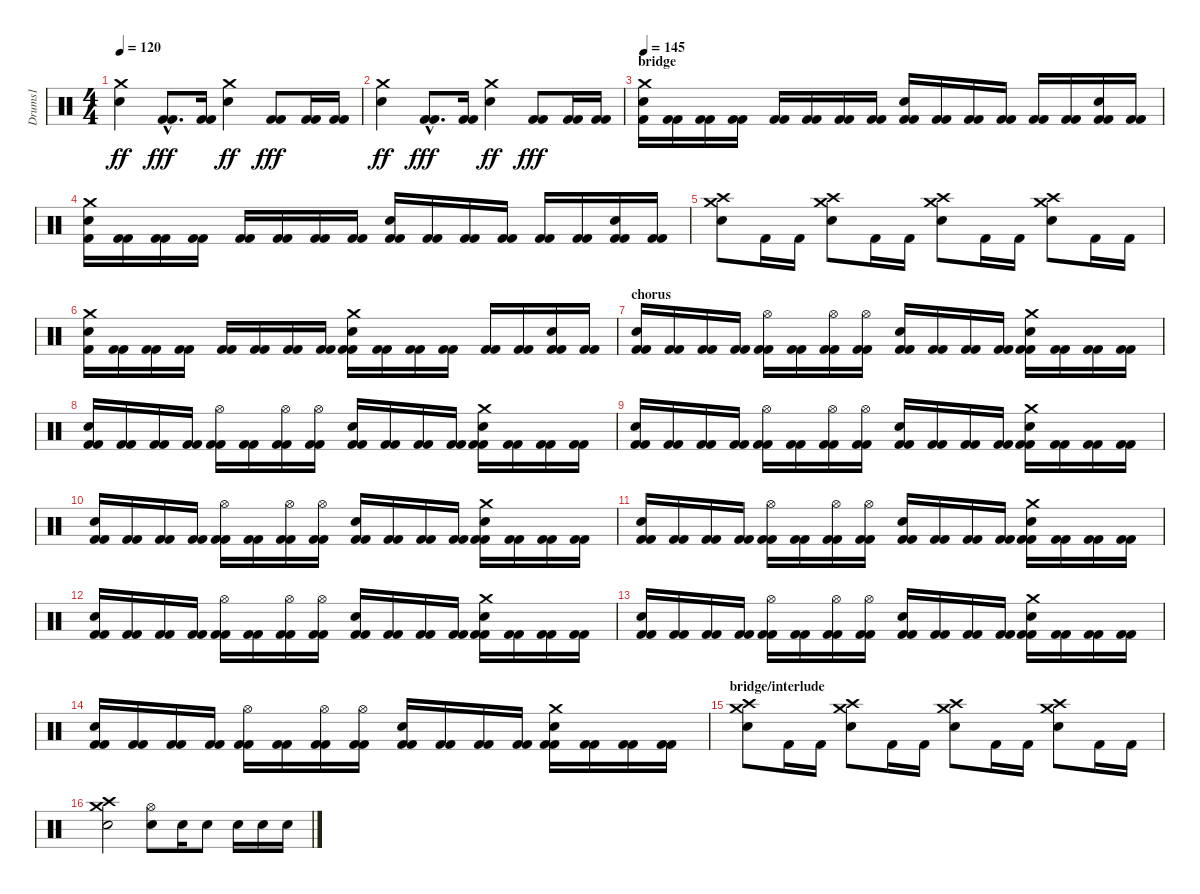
\track ("Drums1" "Drums1") {instrument percussion}
\staff {score}
\articulation defaults
\ts (4 4)
\tempo 120
\clef neutral
\ks c
("Crash medium (hit)" "Snare (hit) 2").4{dy ff} ("Kick (hit) 2"{hac} "Kick (hit) 2"{hac}).8{d dy fff} ("Kick (hit) 2" "Kick (hit) 2").16 ("Crash medium (hit)" "Snare (hit) 2").4{dy ff} ("Kick (hit) 2" "Kick (hit) 2").8{dy fff} ("Kick (hit) 2" "Kick (hit) 2").16 ("Kick (hit) 2" "Kick (hit) 2").16 |
("Crash medium (hit)" "Snare (hit) 2").4{dy ff} ("Kick (hit) 2"{hac} "Kick (hit) 2"{hac}).8{d dy fff} ("Kick (hit) 2" "Kick (hit) 2").16 ("Crash medium (hit)" "Snare (hit) 2").4{dy ff} ("Kick (hit) 2" "Kick (hit) 2").8{dy fff} ("Kick (hit) 2" "Kick (hit) 2").16 ("Kick (hit) 2" "Kick (hit) 2").16 |
\section ("" "bridge")
\tempo 145
("Electric Snare (hit)" "Crash medium (hit)" "Kick (hit) 2").16 ("Kick (hit) 2" "Kick (hit) 2").16 ("Kick (hit) 2" "Kick (hit) 2").16 ("Kick (hit) 2" "Kick (hit) 2").16 ("Kick (hit) 2" "Kick (hit) 2").16 ("Kick (hit) 2" "Kick (hit) 2").16 ("Kick (hit) 2" "Kick (hit) 2").16 ("Kick (hit) 2" "Kick (hit) 2").16 ("Electric Snare (hit)" "Kick (hit) 2" "Kick (hit) 2").16 ("Kick (hit) 2" "Kick (hit) 2").16 ("Kick (hit) 2" "Kick (hit) 2").16 ("Kick (hit) 2" "Kick (hit) 2").16 ("Kick (hit) 2" "Kick (hit) 2").16 ("Kick (hit) 2" "Kick (hit) 2").16 ("Electric Snare (hit)" "Kick (hit) 2" "Kick (hit) 2").16 ("Kick (hit) 2" "Kick (hit) 2").16 |
("Electric Snare (hit)" "Crash medium (hit)" "Kick (hit) 2").16 ("Kick (hit) 2" "Kick (hit) 2").16 ("Kick (hit) 2" "Kick (hit) 2").16 ("Kick (hit) 2" "Kick (hit) 2").16 ("Kick (hit) 2" "Kick (hit) 2").16 ("Kick (hit) 2" "Kick (hit) 2").16 ("Kick (hit) 2" "Kick (hit) 2").16 ("Kick (hit) 2" "Kick (hit) 2").16 ("Electric Snare (hit)" "Kick (hit) 2" "Kick (hit) 2").16 ("Kick (hit) 2" "Kick (hit) 2").16 ("Kick (hit) 2" "Kick (hit) 2").16 ("Kick (hit) 2" "Kick (hit) 2").16 ("Kick (hit) 2" "Kick (hit) 2").16 ("Kick (hit) 2" "Kick (hit) 2").16 ("Electric Snare (hit)" "Kick (hit) 2" "Kick (hit) 2").16 ("Kick (hit) 2" "Kick (hit) 2").16 |
("Crash high (hit)" "Crash medium (hit)" "Electric Snare (hit)").8 "Kick (hit) 2".16 "Kick (hit) 2".16 ("Crash high (hit)" "Crash medium (hit)" "Electric Snare (hit)").8 "Kick (hit) 2".16 "Kick (hit) 2".16 ("Crash high (hit)" "Crash medium (hit)" "Electric Snare (hit)").8 "Kick (hit) 2".16 "Kick (hit) 2".16 ("Crash high (hit)" "Crash medium (hit)" "Electric Snare (hit)").8 "Kick (hit) 2".16 "Kick (hit) 2".16 |
("Electric Snare (hit)" "Crash medium (hit)" "Kick (hit) 2").16 ("Kick (hit) 2" "Kick (hit) 2").16 ("Kick (hit) 2" "Kick (hit) 2").16 ("Kick (hit) 2" "Kick (hit) 2").16 ("Kick (hit) 2" "Kick (hit) 2").16 ("Kick (hit) 2" "Kick (hit) 2").16 ("Kick (hit) 2" "Kick (hit) 2").16 ("Kick (hit) 2" "Kick (hit) 2").16 ("Crash medium (hit)" "Electric Snare (hit)" "Kick (hit) 2" "Kick (hit) 2").16 ("Kick (hit) 2" "Kick (hit) 2").16 ("Kick (hit) 2" "Kick (hit) 2").16 ("Kick (hit) 2" "Kick (hit) 2").16 ("Kick (hit) 2" "Kick (hit) 2").16 ("Kick (hit) 2" "Kick (hit) 2").16 ("Electric Snare (hit)" "Kick (hit) 2" "Kick (hit) 2").16 ("Kick (hit) 2" "Kick (hit) 2").16 |
\section ("" "chorus")
("Electric Snare (hit)" "Kick (hit) 2" "Kick (hit) 2").16 ("Kick (hit) 2" "Kick (hit) 2").16 ("Kick (hit) 2" "Kick (hit) 2").16 ("Kick (hit) 2" "Kick (hit) 2").16 ("Hi-Hat (open)" "Kick (hit) 2" "Kick (hit) 2").16 ("Kick (hit) 2" "Kick (hit) 2").16 ("Hi-Hat (open)" "Kick (hit) 2" "Kick (hit) 2").16 ("Hi-Hat (open)" "Kick (hit) 2" "Kick (hit) 2").16 ("Electric Snare (hit)" "Kick (hit) 2" "Kick (hit) 2").16 ("Kick (hit) 2" "Kick (hit) 2").16 ("Kick (hit) 2" "Kick (hit) 2").16 ("Kick (hit) 2" "Kick (hit) 2").16 ("Electric Snare (hit)" "Crash medium (hit)" "Kick (hit) 2" "Kick (hit) 2").16 ("Kick (hit) 2" "Kick (hit) 2").16 ("Kick (hit) 2" "Kick (hit) 2").16 ("Kick (hit) 2" "Kick (hit) 2").16 |
("Electric Snare (hit)" "Kick (hit) 2" "Kick (hit) 2").16 ("Kick (hit) 2" "Kick (hit) 2").16 ("Kick (hit) 2" "Kick (hit) 2").16 ("Kick (hit) 2" "Kick (hit) 2").16 ("Hi-Hat (open)" "Kick (hit) 2" "Kick (hit) 2").16 ("Kick (hit) 2" "Kick (hit) 2").16 ("Hi-Hat (open)" "Kick (hit) 2" "Kick (hit) 2").16 ("Hi-Hat (open)" "Kick (hit) 2" "Kick (hit) 2").16 ("Electric Snare (hit)" "Kick (hit) 2" "Kick (hit) 2").16 ("Kick (hit) 2" "Kick (hit) 2").16 ("Kick (hit) 2" "Kick (hit) 2").16 ("Kick (hit) 2" "Kick (hit) 2").16 ("Electric Snare (hit)" "Crash medium (hit)" "Kick (hit) 2" "Kick (hit) 2").16 ("Kick (hit) 2" "Kick (hit) 2").16 ("Kick (hit) 2" "Kick (hit) 2").16 ("Kick (hit) 2" "Kick (hit) 2").16 |
("Electric Snare (hit)" "Kick (hit) 2" "Kick (hit) 2").16 ("Kick (hit) 2" "Kick (hit) 2").16 ("Kick (hit) 2" "Kick (hit) 2").16 ("Kick (hit) 2" "Kick (hit) 2").16 ("Hi-Hat (open)" "Kick (hit) 2" "Kick (hit) 2").16 ("Kick (hit) 2" "Kick (hit) 2").16 ("Hi-Hat (open)" "Kick (hit) 2" "Kick (hit) 2").16 ("Hi-Hat (open)" "Kick (hit) 2" "Kick (hit) 2").16 ("Electric Snare (hit)" "Kick (hit) 2" "Kick (hit) 2").16 ("Kick (hit) 2" "Kick (hit) 2").16 ("Kick (hit) 2" "Kick (hit) 2").16 ("Kick (hit) 2" "Kick (hit) 2").16 ("Electric Snare (hit)" "Crash medium (hit)" "Kick (hit) 2" "Kick (hit) 2").16 ("Kick (hit) 2" "Kick (hit) 2").16 ("Kick (hit) 2" "Kick (hit) 2").16 ("Kick (hit) 2" "Kick (hit) 2").16 |
("Electric Snare (hit)" "Kick (hit) 2" "Kick (hit) 2").16 ("Kick (hit) 2" "Kick (hit) 2").16 ("Kick (hit) 2" "Kick (hit) 2").16 ("Kick (hit) 2" "Kick (hit) 2").16 ("Hi-Hat (open)" "Kick (hit) 2" "Kick (hit) 2").16 ("Kick (hit) 2" "Kick (hit) 2").16 ("Hi-Hat (open)" "Kick (hit) 2" "Kick (hit) 2").16 ("Hi-Hat (open)" "Kick (hit) 2" "Kick (hit) 2").16 ("Electric Snare (hit)" "Kick (hit) 2" "Kick (hit) 2").16 ("Kick (hit) 2" "Kick (hit) 2").16 ("Kick (hit) 2" "Kick (hit) 2").16 ("Kick (hit) 2" "Kick (hit) 2").16 ("Electric Snare (hit)" "Crash medium (hit)" "Kick (hit) 2" "Kick (hit) 2").16 ("Kick (hit) 2" "Kick (hit) 2").16 ("Kick (hit) 2" "Kick (hit) 2").16 ("Kick (hit) 2" "Kick (hit) 2").16 |
("Electric Snare (hit)" "Kick (hit) 2" "Kick (hit) 2").16 ("Kick (hit) 2" "Kick (hit) 2").16 ("Kick (hit) 2" "Kick (hit) 2").16 ("Kick (hit) 2" "Kick (hit) 2").16 ("Hi-Hat (open)" "Kick (hit) 2" "Kick (hit) 2").16 ("Kick (hit) 2" "Kick (hit) 2").16 ("Hi-Hat (open)" "Kick (hit) 2" "Kick (hit) 2").16 ("Hi-Hat (open)" "Kick (hit) 2" "Kick (hit) 2").16 ("Electric Snare (hit)" "Kick (hit) 2" "Kick (hit) 2").16 ("Kick (hit) 2" "Kick (hit) 2").16 ("Kick (hit) 2" "Kick (hit) 2").16 ("Kick (hit) 2" "Kick (hit) 2").16 ("Electric Snare (hit)" "Crash medium (hit)" "Kick (hit) 2" "Kick (hit) 2").16 ("Kick (hit) 2" "Kick (hit) 2").16 ("Kick (hit) 2" "Kick (hit) 2").16 ("Kick (hit) 2" "Kick (hit) 2").16 |
("Electric Snare (hit)" "Kick (hit) 2" "Kick (hit) 2").16 ("Kick (hit) 2" "Kick (hit) 2").16 ("Kick (hit) 2" "Kick (hit) 2").16 ("Kick (hit) 2" "Kick (hit) 2").16 ("Hi-Hat (open)" "Kick (hit) 2" "Kick (hit) 2").16 ("Kick (hit) 2" "Kick (hit) 2").16 ("Hi-Hat (open)" "Kick (hit) 2" "Kick (hit) 2").16 ("Hi-Hat (open)" "Kick (hit) 2" "Kick (hit) 2").16 ("Electric Snare (hit)" "Kick (hit) 2" "Kick (hit) 2").16 ("Kick (hit) 2" "Kick (hit) 2").16 ("Kick (hit) 2" "Kick (hit) 2").16 ("Kick (hit) 2" "Kick (hit) 2").16 ("Electric Snare (hit)" "Crash medium (hit)" "Kick (hit) 2" "Kick (hit) 2").16 ("Kick (hit) 2" "Kick (hit) 2").16 ("Kick (hit) 2" "Kick (hit) 2").16 ("Kick (hit) 2" "Kick (hit) 2").16 |
("Electric Snare (hit)" "Kick (hit) 2" "Kick (hit) 2").16 ("Kick (hit) 2" "Kick (hit) 2").16 ("Kick (hit) 2" "Kick (hit) 2").16 ("Kick (hit) 2" "Kick (hit) 2").16 ("Hi-Hat (open)" "Kick (hit) 2" "Kick (hit) 2").16 ("Kick (hit) 2" "Kick (hit) 2").16 ("Hi-Hat (open)" "Kick (hit) 2" "Kick (hit) 2").16 ("Hi-Hat (open)" "Kick (hit) 2" "Kick (hit) 2").16 ("Electric Snare (hit)" "Kick (hit) 2" "Kick (hit) 2").16 ("Kick (hit) 2" "Kick (hit) 2").16 ("Kick (hit) 2" "Kick (hit) 2").16 ("Kick (hit) 2" "Kick (hit) 2").16 ("Electric Snare (hit)" "Crash medium (hit)" "Kick (hit) 2" "Kick (hit) 2").16 ("Kick (hit) 2" "Kick (hit) 2").16 ("Kick (hit) 2" "Kick (hit) 2").16 ("Kick (hit) 2" "Kick (hit) 2").16 |
("Electric Snare (hit)" "Kick (hit) 2" "Kick (hit) 2").16 ("Kick (hit) 2" "Kick (hit) 2").16 ("Kick (hit) 2" "Kick (hit) 2").16 ("Kick (hit) 2" "Kick (hit) 2").16 ("Hi-Hat (open)" "Kick (hit) 2" "Kick (hit) 2").16 ("Kick (hit) 2" "Kick (hit) 2").16 ("Hi-Hat (open)" "Kick (hit) 2" "Kick (hit) 2").16 ("Hi-Hat (open)" "Kick (hit) 2" "Kick (hit) 2").16 ("Electric Snare (hit)" "Kick (hit) 2" "Kick (hit) 2").16 ("Kick (hit) 2" "Kick (hit) 2").16 ("Kick (hit) 2" "Kick (hit) 2").16 ("Kick (hit) 2" "Kick (hit) 2").16 ("Electric Snare (hit)" "Crash medium (hit)" "Kick (hit) 2" "Kick (hit) 2").16 ("Kick (hit) 2" "Kick (hit) 2").16 ("Kick (hit) 2" "Kick (hit) 2").16 ("Kick (hit) 2" "Kick (hit) 2").16 |
\section ("" "bridge/interlude")
("Crash high (hit)" "Crash medium (hit)" "Electric Snare (hit)").8 "Kick (hit) 2".16 "Kick (hit) 2".16 ("Crash high (hit)" "Crash medium (hit)" "Electric Snare (hit)").8 "Kick (hit) 2".16 "Kick (hit) 2".16 ("Crash high (hit)" "Crash medium (hit)" "Electric Snare (hit)").8 "Kick (hit) 2".16 "Kick (hit) 2".16 ("Crash high (hit)" "Crash medium (hit)" "Electric Snare (hit)").8 "Kick (hit) 2".16 "Kick (hit) 2".16 |
("Crash high (hit)" "Crash medium (hit)" "Electric Snare (hit)").2 ("Hi-Hat (open)" "Electric Snare (hit)").8 "Electric Snare (hit)".16 "Electric Snare (hit)".8 "Electric Snare (hit)".16 "Electric Snare (hit)".16 "Electric Snare (hit)".16
